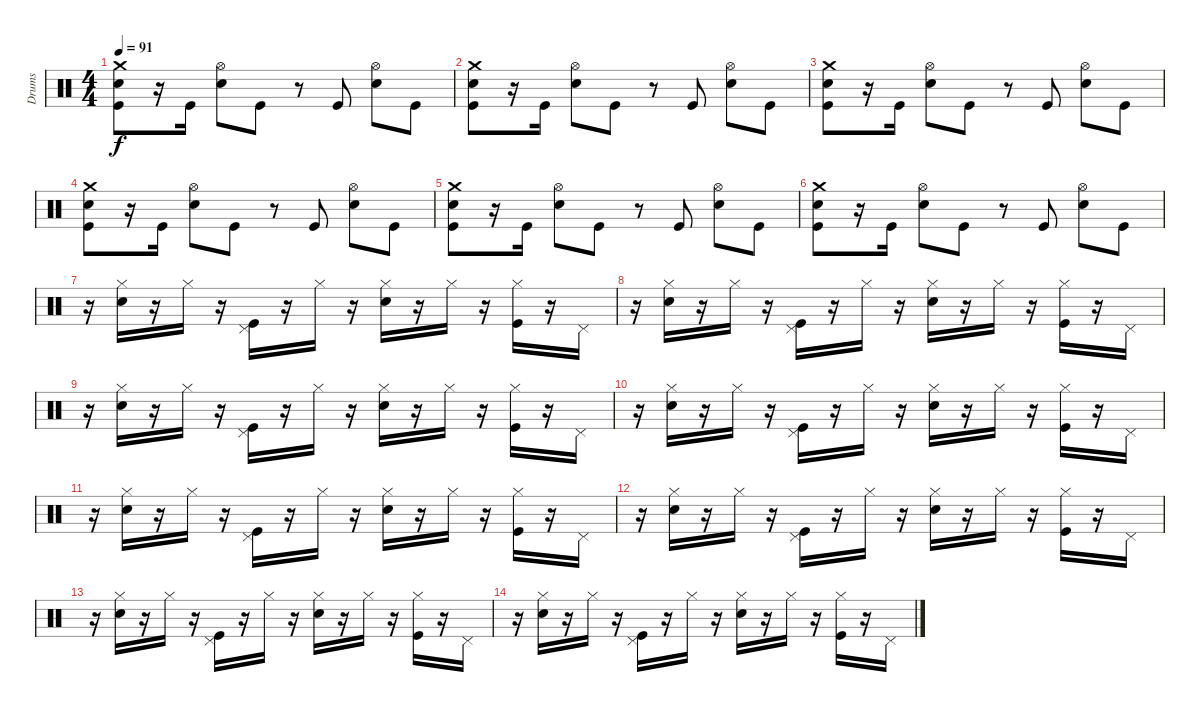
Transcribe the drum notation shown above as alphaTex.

\track ("Drums" "Drums") {instrument percussion}
\staff {score}
\articulation defaults
\ts (4 4)
\tempo 91
\clef neutral
\ks c
("Crash medium (hit)" "Snare (hit) 2" "Kick (hit)").8{dy f} r.16 "Kick (hit)".16 ("Hi-Hat (open)" "Snare (hit) 2").8 "Kick (hit)".8 r.8 "Kick (hit)".8 ("Hi-Hat (open)" "Snare (hit) 2").8 "Kick (hit)".8 |
("Crash medium (hit)" "Snare (hit) 2" "Kick (hit)").8 r.16 "Kick (hit)".16 ("Hi-Hat (open)" "Snare (hit) 2").8 "Kick (hit)".8 r.8 "Kick (hit)".8 ("Hi-Hat (open)" "Snare (hit) 2").8 "Kick (hit)".8 |
("Crash medium (hit)" "Snare (hit) 2" "Kick (hit)").8 r.16 "Kick (hit)".16 ("Hi-Hat (open)" "Snare (hit) 2").8 "Kick (hit)".8 r.8 "Kick (hit)".8 ("Hi-Hat (open)" "Snare (hit) 2").8 "Kick (hit)".8 |
("Crash medium (hit)" "Snare (hit) 2" "Kick (hit)").8 r.16 "Kick (hit)".16 ("Hi-Hat (open)" "Snare (hit) 2").8 "Kick (hit)".8 r.8 "Kick (hit)".8 ("Hi-Hat (open)" "Snare (hit) 2").8 "Kick (hit)".8 |
("Crash medium (hit)" "Snare (hit) 2" "Kick (hit)").8 r.16 "Kick (hit)".16 ("Hi-Hat (open)" "Snare (hit) 2").8 "Kick (hit)".8 r.8 "Kick (hit)".8 ("Hi-Hat (open)" "Snare (hit) 2").8 "Kick (hit)".8 |
("Crash medium (hit)" "Snare (hit) 2" "Kick (hit)").8 r.16 "Kick (hit)".16 ("Hi-Hat (open)" "Snare (hit) 2").8 "Kick (hit)".8 r.8 "Kick (hit)".8 ("Hi-Hat (open)" "Snare (hit) 2").8 "Kick (hit)".8 |
r.16 ("Hi-Hat (closed)" "Snare (hit) 2").16 r.16 "Hi-Hat (closed)".16 r.16 ("Pedal Hi-Hat (hit)" "Kick (hit)").16 r.16 "Hi-Hat (closed)".16 r.16 ("Hi-Hat (closed)" "Snare (hit) 2").16 r.16 "Hi-Hat (closed)".16 r.16 ("Hi-Hat (closed)" "Kick (hit)").16 r.16 "Pedal Hi-Hat (hit)".16 |
r.16 ("Hi-Hat (closed)" "Snare (hit) 2").16 r.16 "Hi-Hat (closed)".16 r.16 ("Pedal Hi-Hat (hit)" "Kick (hit)").16 r.16 "Hi-Hat (closed)".16 r.16 ("Hi-Hat (closed)" "Snare (hit) 2").16 r.16 "Hi-Hat (closed)".16 r.16 ("Hi-Hat (closed)" "Kick (hit)").16 r.16 "Pedal Hi-Hat (hit)".16 |
r.16 ("Hi-Hat (closed)" "Snare (hit) 2").16 r.16 "Hi-Hat (closed)".16 r.16 ("Pedal Hi-Hat (hit)" "Kick (hit)").16 r.16 "Hi-Hat (closed)".16 r.16 ("Hi-Hat (closed)" "Snare (hit) 2").16 r.16 "Hi-Hat (closed)".16 r.16 ("Hi-Hat (closed)" "Kick (hit)").16 r.16 "Pedal Hi-Hat (hit)".16 |
r.16 ("Hi-Hat (closed)" "Snare (hit) 2").16 r.16 "Hi-Hat (closed)".16 r.16 ("Pedal Hi-Hat (hit)" "Kick (hit)").16 r.16 "Hi-Hat (closed)".16 r.16 ("Hi-Hat (closed)" "Snare (hit) 2").16 r.16 "Hi-Hat (closed)".16 r.16 ("Hi-Hat (closed)" "Kick (hit)").16 r.16 "Pedal Hi-Hat (hit)".16 |
r.16 ("Hi-Hat (closed)" "Snare (hit) 2").16 r.16 "Hi-Hat (closed)".16 r.16 ("Pedal Hi-Hat (hit)" "Kick (hit)").16 r.16 "Hi-Hat (closed)".16 r.16 ("Hi-Hat (closed)" "Snare (hit) 2").16 r.16 "Hi-Hat (closed)".16 r.16 ("Hi-Hat (closed)" "Kick (hit)").16 r.16 "Pedal Hi-Hat (hit)".16 |
r.16 ("Hi-Hat (closed)" "Snare (hit) 2").16 r.16 "Hi-Hat (closed)".16 r.16 ("Pedal Hi-Hat (hit)" "Kick (hit)").16 r.16 "Hi-Hat (closed)".16 r.16 ("Hi-Hat (closed)" "Snare (hit) 2").16 r.16 "Hi-Hat (closed)".16 r.16 ("Hi-Hat (closed)" "Kick (hit)").16 r.16 "Pedal Hi-Hat (hit)".16 |
r.16 ("Hi-Hat (closed)" "Snare (hit) 2").16 r.16 "Hi-Hat (closed)".16 r.16 ("Pedal Hi-Hat (hit)" "Kick (hit)").16 r.16 "Hi-Hat (closed)".16 r.16 ("Hi-Hat (closed)" "Snare (hit) 2").16 r.16 "Hi-Hat (closed)".16 r.16 ("Hi-Hat (closed)" "Kick (hit)").16 r.16 "Pedal Hi-Hat (hit)".16 |
r.16 ("Hi-Hat (closed)" "Snare (hit) 2").16 r.16 "Hi-Hat (closed)".16 r.16 ("Pedal Hi-Hat (hit)" "Kick (hit)").16 r.16 "Hi-Hat (closed)".16 r.16 ("Hi-Hat (closed)" "Snare (hit) 2").16 r.16 "Hi-Hat (closed)".16 r.16 ("Hi-Hat (closed)" "Kick (hit)").16 r.16 "Pedal Hi-Hat (hit)".16
